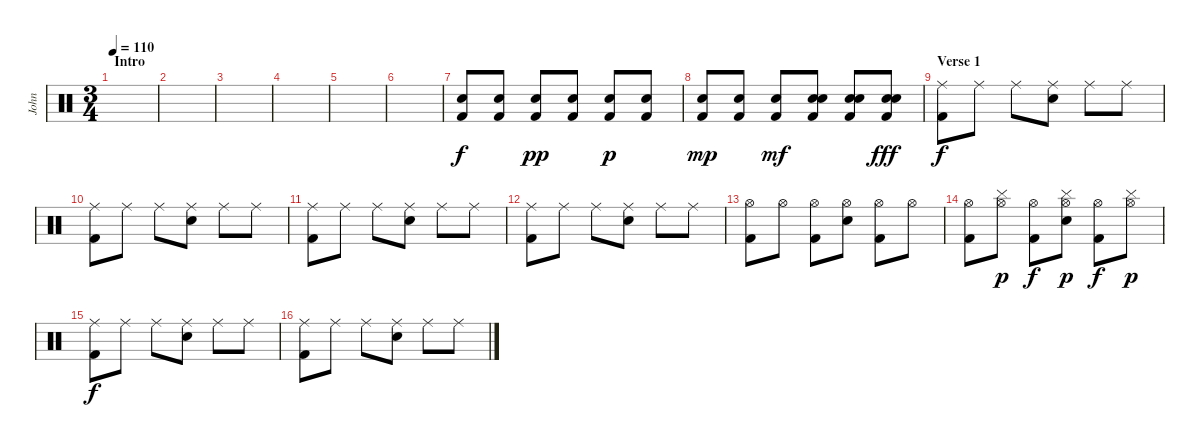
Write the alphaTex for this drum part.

\track ("John" "John") {instrument percussion}
\staff {score}
\articulation defaults
\ts (3 4)
\section ("" "Intro")
\tempo 110
\clef neutral
\ks c
|
|
|
|
|
|
("Electric Snare (hit)" "Kick (hit) 2").8 ("Electric Snare (hit)" "Kick (hit) 2").8 ("Electric Snare (hit)" "Kick (hit) 2").8{dy pp} ("Electric Snare (hit)" "Kick (hit) 2").8 ("Electric Snare (hit)" "Kick (hit) 2").8{dy p} ("Electric Snare (hit)" "Kick (hit) 2").8 |
("Electric Snare (hit)" "Kick (hit) 2").8{dy mp} ("Electric Snare (hit)" "Kick (hit) 2").8 ("Electric Snare (hit)" "Kick (hit) 2").8{dy mf} ("Electric Snare (hit)" "Electric Snare (hit)" "Kick (hit) 2").8 ("Electric Snare (hit)" "Electric Snare (hit)" "Kick (hit) 2").8 ("Electric Snare (hit)" "Electric Snare (hit)" "Kick (hit) 2").8{dy fff} |
\section ("" "Verse 1")
("Ride (middle)" "Kick (hit) 2").8{dy f} "Ride (middle)".8 "Ride (middle)".8 ("Ride (middle)" "Electric Snare (hit)").8 "Ride (middle)".8 "Ride (middle)".8 |
("Ride (middle)" "Kick (hit) 2").8 "Ride (middle)".8 "Ride (middle)".8 ("Ride (middle)" "Electric Snare (hit)").8 "Ride (middle)".8 "Ride (middle)".8 |
("Ride (middle)" "Kick (hit) 2").8 "Ride (middle)".8 "Ride (middle)".8 ("Ride (middle)" "Electric Snare (hit)").8 "Ride (middle)".8 "Ride (middle)".8 |
("Ride (middle)" "Kick (hit) 2").8 "Ride (middle)".8 "Ride (middle)".8 ("Ride (middle)" "Electric Snare (hit)").8 "Ride (middle)".8 "Ride (middle)".8 |
("Hi-Hat (open)" "Kick (hit) 2").8 "Hi-Hat (open)".8 ("Hi-Hat (open)" "Kick (hit) 2").8 ("Hi-Hat (open)" "Electric Snare (hit)").8 ("Hi-Hat (open)" "Kick (hit) 2").8 "Hi-Hat (open)".8 |
("Hi-Hat (open)" "Kick (hit) 2").8 ("Hi-Hat (open)" "Cymbal (hit)").8{dy p} ("Hi-Hat (open)" "Kick (hit) 2").8{dy f} ("Hi-Hat (open)" "Cymbal (hit)" "Electric Snare (hit)").8{dy p} ("Hi-Hat (open)" "Kick (hit) 2").8{dy f} ("Hi-Hat (open)" "Cymbal (hit)").8{dy p} |
("Ride (middle)" "Kick (hit) 2").8{dy f} "Ride (middle)".8 "Ride (middle)".8 ("Ride (middle)" "Electric Snare (hit)").8 "Ride (middle)".8 "Ride (middle)".8 |
("Ride (middle)" "Kick (hit) 2").8 "Ride (middle)".8 "Ride (middle)".8 ("Ride (middle)" "Electric Snare (hit)").8 "Ride (middle)".8 "Ride (middle)".8
